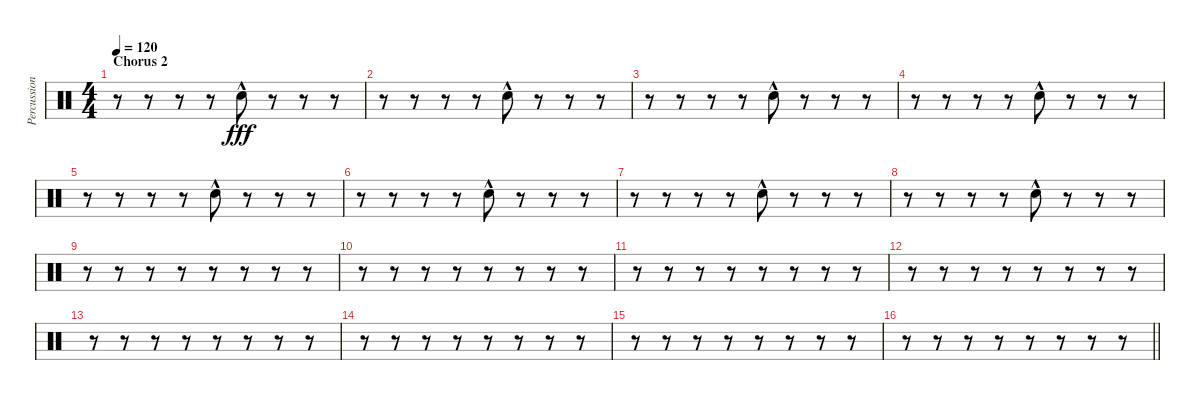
\track ("Percussion" "Percussion") {instrument percussion}
\staff {score}
\articulation defaults
\ts (4 4)
\section ("" "Chorus 2")
\tempo 120
\clef neutral
\ks c
r.8{dy fff} r.8 r.8 r.8 "Snare (hit) 2"{hac}.8 r.8 r.8 r.8 |
r.8 r.8 r.8 r.8 "Snare (hit) 2"{hac}.8 r.8 r.8 r.8 |
r.8 r.8 r.8 r.8 "Snare (hit) 2"{hac}.8 r.8 r.8 r.8 |
r.8 r.8 r.8 r.8 "Snare (hit) 2"{hac}.8 r.8 r.8 r.8 |
r.8 r.8 r.8 r.8 "Snare (hit) 2"{hac}.8 r.8 r.8 r.8 |
r.8 r.8 r.8 r.8 "Snare (hit) 2"{hac}.8 r.8 r.8 r.8 |
r.8 r.8 r.8 r.8 "Snare (hit) 2"{hac}.8 r.8 r.8 r.8 |
r.8 r.8 r.8 r.8 "Snare (hit) 2"{hac}.8 r.8 r.8 r.8 |
r.8 r.8 r.8 r.8 r.8 r.8 r.8 r.8 |
r.8 r.8 r.8 r.8 r.8 r.8 r.8 r.8 |
r.8 r.8 r.8 r.8 r.8 r.8 r.8 r.8 |
r.8 r.8 r.8 r.8 r.8 r.8 r.8 r.8 |
r.8 r.8 r.8 r.8 r.8 r.8 r.8 r.8 |
r.8 r.8 r.8 r.8 r.8 r.8 r.8 r.8 |
r.8 r.8 r.8 r.8 r.8 r.8 r.8 r.8 |
\barLineRight lightlight
r.8 r.8 r.8 r.8 r.8 r.8 r.8 r.8
